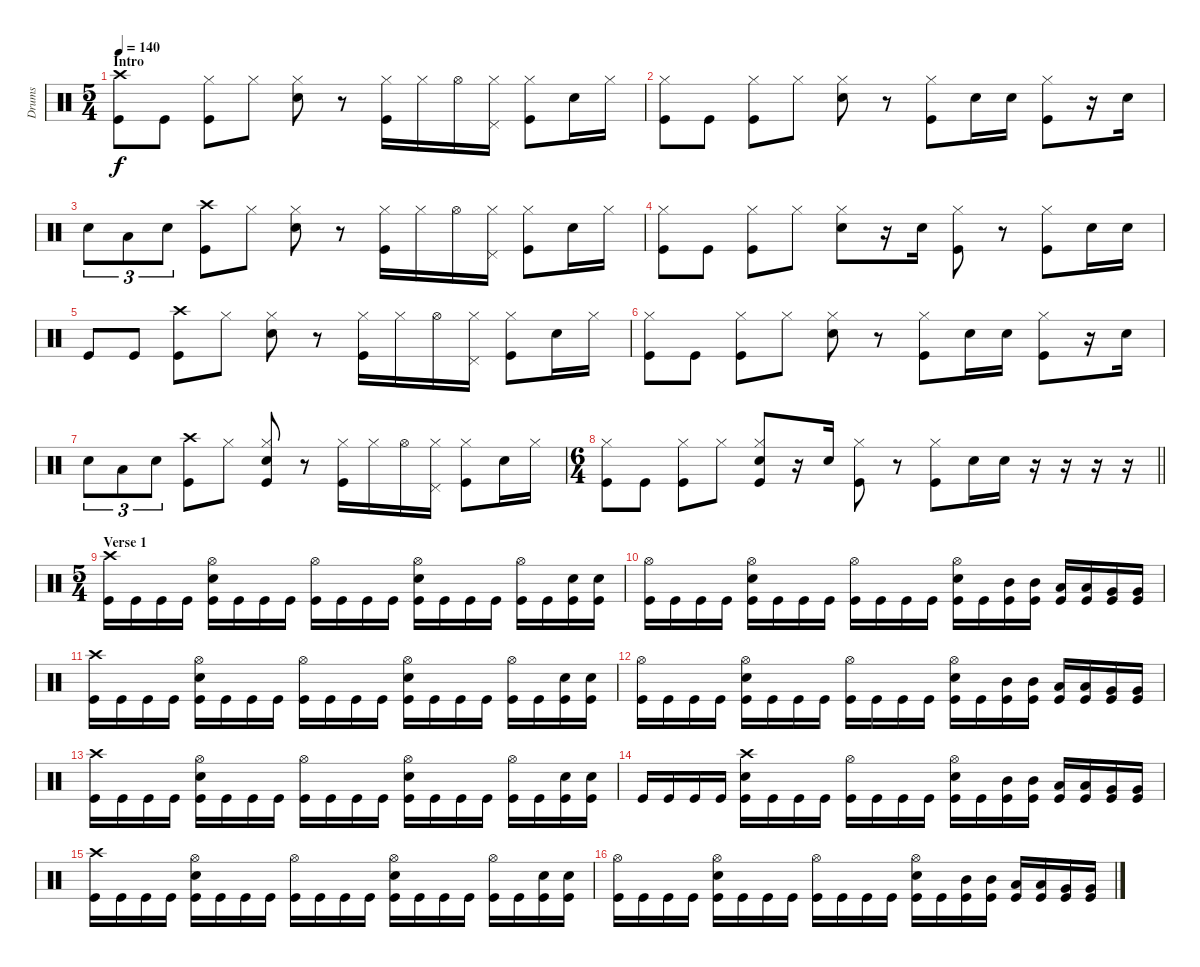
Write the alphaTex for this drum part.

\track ("Drums" "Drums") {instrument percussion}
\staff {score}
\articulation defaults
\ts (5 4)
\section ("" "Intro")
\tempo 140
\clef neutral
\ks c
("Crash high (hit)" "Kick (hit)").8{dy f} "Kick (hit)".8 ("Hi-Hat (closed)" "Kick (hit)").8 "Hi-Hat (closed)".8 ("Hi-Hat (closed)" "Snare (hit) 2").8 r.8 ("Hi-Hat (closed)" "Kick (hit)").16 "Hi-Hat (closed)".16 "Hi-Hat (open)".16 ("Hi-Hat (closed)" "Pedal Hi-Hat (hit)").16 ("Hi-Hat (closed)" "Kick (hit)").8 "Snare (hit) 2".16 "Hi-Hat (closed)".16 |
("Hi-Hat (closed)" "Kick (hit)").8 "Kick (hit)".8 ("Hi-Hat (closed)" "Kick (hit)").8 "Hi-Hat (closed)".8 ("Hi-Hat (closed)" "Snare (hit) 2").8 r.8 ("Hi-Hat (closed)" "Kick (hit)").8 "Snare (hit) 2".16 "Snare (hit) 2".16 ("Hi-Hat (closed)" "Kick (hit)").8 r.16 "Snare (hit) 2".16 |
"Snare (hit) 2".8{tu (3 2)} "Low Tom (hit)".8{tu (3 2)} "Snare (hit) 2".8{tu (3 2)} ("Crash high (hit)" "Kick (hit)").8 "Hi-Hat (closed)".8 ("Hi-Hat (closed)" "Snare (hit) 2").8 r.8 ("Hi-Hat (closed)" "Kick (hit)").16 "Hi-Hat (closed)".16 "Hi-Hat (open)".16 ("Hi-Hat (closed)" "Pedal Hi-Hat (hit)").16 ("Hi-Hat (closed)" "Kick (hit)").8 "Snare (hit) 2".16 "Hi-Hat (closed)".16 |
("Hi-Hat (closed)" "Kick (hit)").8 "Kick (hit)".8 ("Hi-Hat (closed)" "Kick (hit)").8 "Hi-Hat (closed)".8 ("Hi-Hat (closed)" "Snare (hit) 2").8 r.16 "Snare (hit) 2".16 ("Hi-Hat (closed)" "Kick (hit)").8 r.8 ("Hi-Hat (closed)" "Kick (hit)").8 "Snare (hit) 2".16 "Snare (hit) 2".16 |
"Kick (hit)".8 "Kick (hit)".8 ("Crash high (hit)" "Kick (hit)").8 "Hi-Hat (closed)".8 ("Hi-Hat (closed)" "Snare (hit) 2").8 r.8 ("Hi-Hat (closed)" "Kick (hit)").16 "Hi-Hat (closed)".16 "Hi-Hat (open)".16 ("Hi-Hat (closed)" "Pedal Hi-Hat (hit)").16 ("Hi-Hat (closed)" "Kick (hit)").8 "Snare (hit) 2".16 "Hi-Hat (closed)".16 |
("Hi-Hat (closed)" "Kick (hit)").8 "Kick (hit)".8 ("Hi-Hat (closed)" "Kick (hit)").8 "Hi-Hat (closed)".8 ("Hi-Hat (closed)" "Snare (hit) 2").8 r.8 ("Hi-Hat (closed)" "Kick (hit)").8 "Snare (hit) 2".16 "Snare (hit) 2".16 ("Hi-Hat (closed)" "Kick (hit)").8 r.16 "Snare (hit) 2".16 |
"Snare (hit) 2".8{tu (3 2)} "Low Tom (hit)".8{tu (3 2)} "Snare (hit) 2".8{tu (3 2)} ("Crash high (hit)" "Kick (hit)").8 "Hi-Hat (closed)".8 ("Hi-Hat (closed)" "Snare (hit) 2" "Kick (hit)").8 r.8 ("Hi-Hat (closed)" "Kick (hit)").16 "Hi-Hat (closed)".16 "Hi-Hat (open)".16 ("Hi-Hat (closed)" "Pedal Hi-Hat (hit)").16 ("Hi-Hat (closed)" "Kick (hit)").8 "Snare (hit) 2".16 "Hi-Hat (closed)".16 |
\ts (6 4)
\barLineRight lightlight
("Hi-Hat (closed)" "Kick (hit)").8 "Kick (hit)".8 ("Hi-Hat (closed)" "Kick (hit)").8 "Hi-Hat (closed)".8 ("Hi-Hat (closed)" "Snare (hit) 2" "Kick (hit)").8 r.16 "Snare (hit) 2".16 ("Hi-Hat (closed)" "Kick (hit)").8 r.8 ("Hi-Hat (closed)" "Kick (hit)").8 "Snare (hit) 2".16 "Snare (hit) 2".16 r.16 r.16 r.16 r.16 |
\ts (5 4)
\section ("" "Verse 1")
("Crash high (hit)" "Kick (hit)").16 "Kick (hit)".16 "Kick (hit)".16 "Kick (hit)".16 ("Hi-Hat (open)" "Snare (hit) 2" "Kick (hit)").16 "Kick (hit)".16 "Kick (hit)".16 "Kick (hit)".16 ("Hi-Hat (open)" "Kick (hit)").16 "Kick (hit)".16 "Kick (hit)".16 "Kick (hit)".16 ("Hi-Hat (open)" "Snare (hit) 2" "Kick (hit)").16 "Kick (hit)".16 "Kick (hit)".16 "Kick (hit)".16 ("Hi-Hat (open)" "Kick (hit)").16 "Kick (hit)".16 ("Snare (hit) 2" "Kick (hit)").16 ("Snare (hit) 2" "Kick (hit)").16 |
("Hi-Hat (open)" "Kick (hit)").16 "Kick (hit)".16 "Kick (hit)".16 "Kick (hit)".16 ("Hi-Hat (open)" "Snare (hit) 2" "Kick (hit)").16 "Kick (hit)".16 "Kick (hit)".16 "Kick (hit)".16 ("Hi-Hat (open)" "Kick (hit)").16 "Kick (hit)".16 "Kick (hit)".16 "Kick (hit)".16 ("Hi-Hat (open)" "Snare (hit) 2" "Kick (hit)").16 "Kick (hit)".16 ("Mid Tom (hit)" "Kick (hit)").16 ("Mid Tom (hit)" "Kick (hit)").16 ("Low Tom (hit)" "Kick (hit)").16 ("Low Tom (hit)" "Kick (hit)").16 ("Very Low Tom (hit)" "Kick (hit)").16 ("Very Low Tom (hit)" "Kick (hit)").16 |
("Crash high (hit)" "Kick (hit)").16 "Kick (hit)".16 "Kick (hit)".16 "Kick (hit)".16 ("Hi-Hat (open)" "Snare (hit) 2" "Kick (hit)").16 "Kick (hit)".16 "Kick (hit)".16 "Kick (hit)".16 ("Hi-Hat (open)" "Kick (hit)").16 "Kick (hit)".16 "Kick (hit)".16 "Kick (hit)".16 ("Hi-Hat (open)" "Snare (hit) 2" "Kick (hit)").16 "Kick (hit)".16 "Kick (hit)".16 "Kick (hit)".16 ("Hi-Hat (open)" "Kick (hit)").16 "Kick (hit)".16 ("Snare (hit) 2" "Kick (hit)").16 ("Snare (hit) 2" "Kick (hit)").16 |
("Hi-Hat (open)" "Kick (hit)").16 "Kick (hit)".16 "Kick (hit)".16 "Kick (hit)".16 ("Hi-Hat (open)" "Snare (hit) 2" "Kick (hit)").16 "Kick (hit)".16 "Kick (hit)".16 "Kick (hit)".16 ("Hi-Hat (open)" "Kick (hit)").16 "Kick (hit)".16 "Kick (hit)".16 "Kick (hit)".16 ("Hi-Hat (open)" "Snare (hit) 2" "Kick (hit)").16 "Kick (hit)".16 ("Mid Tom (hit)" "Kick (hit)").16 ("Mid Tom (hit)" "Kick (hit)").16 ("Low Tom (hit)" "Kick (hit)").16 ("Low Tom (hit)" "Kick (hit)").16 ("Very Low Tom (hit)" "Kick (hit)").16 ("Very Low Tom (hit)" "Kick (hit)").16 |
("Crash high (hit)" "Kick (hit)").16 "Kick (hit)".16 "Kick (hit)".16 "Kick (hit)".16 ("Hi-Hat (open)" "Snare (hit) 2" "Kick (hit)").16 "Kick (hit)".16 "Kick (hit)".16 "Kick (hit)".16 ("Hi-Hat (open)" "Kick (hit)").16 "Kick (hit)".16 "Kick (hit)".16 "Kick (hit)".16 ("Hi-Hat (open)" "Snare (hit) 2" "Kick (hit)").16 "Kick (hit)".16 "Kick (hit)".16 "Kick (hit)".16 ("Hi-Hat (open)" "Kick (hit)").16 "Kick (hit)".16 ("Snare (hit) 2" "Kick (hit)").16 ("Snare (hit) 2" "Kick (hit)").16 |
"Kick (hit)".16 "Kick (hit)".16 "Kick (hit)".16 "Kick (hit)".16 ("Crash high (hit)" "Snare (hit) 2" "Kick (hit)").16 "Kick (hit)".16 "Kick (hit)".16 "Kick (hit)".16 ("Hi-Hat (open)" "Kick (hit)").16 "Kick (hit)".16 "Kick (hit)".16 "Kick (hit)".16 ("Hi-Hat (open)" "Snare (hit) 2" "Kick (hit)").16 "Kick (hit)".16 ("Mid Tom (hit)" "Kick (hit)").16 ("Mid Tom (hit)" "Kick (hit)").16 ("Low Tom (hit)" "Kick (hit)").16 ("Low Tom (hit)" "Kick (hit)").16 ("Very Low Tom (hit)" "Kick (hit)").16 ("Very Low Tom (hit)" "Kick (hit)").16 |
("Crash high (hit)" "Kick (hit)").16 "Kick (hit)".16 "Kick (hit)".16 "Kick (hit)".16 ("Hi-Hat (open)" "Snare (hit) 2" "Kick (hit)").16 "Kick (hit)".16 "Kick (hit)".16 "Kick (hit)".16 ("Hi-Hat (open)" "Kick (hit)").16 "Kick (hit)".16 "Kick (hit)".16 "Kick (hit)".16 ("Hi-Hat (open)" "Snare (hit) 2" "Kick (hit)").16 "Kick (hit)".16 "Kick (hit)".16 "Kick (hit)".16 ("Hi-Hat (open)" "Kick (hit)").16 "Kick (hit)".16 ("Snare (hit) 2" "Kick (hit)").16 ("Snare (hit) 2" "Kick (hit)").16 |
("Hi-Hat (open)" "Kick (hit)").16 "Kick (hit)".16 "Kick (hit)".16 "Kick (hit)".16 ("Hi-Hat (open)" "Snare (hit) 2" "Kick (hit)").16 "Kick (hit)".16 "Kick (hit)".16 "Kick (hit)".16 ("Hi-Hat (open)" "Kick (hit)").16 "Kick (hit)".16 "Kick (hit)".16 "Kick (hit)".16 ("Hi-Hat (open)" "Snare (hit) 2" "Kick (hit)").16 "Kick (hit)".16 ("Mid Tom (hit)" "Kick (hit)").16 ("Mid Tom (hit)" "Kick (hit)").16 ("Low Tom (hit)" "Kick (hit)").16 ("Low Tom (hit)" "Kick (hit)").16 ("Very Low Tom (hit)" "Kick (hit)").16 ("Very Low Tom (hit)" "Kick (hit)").16
